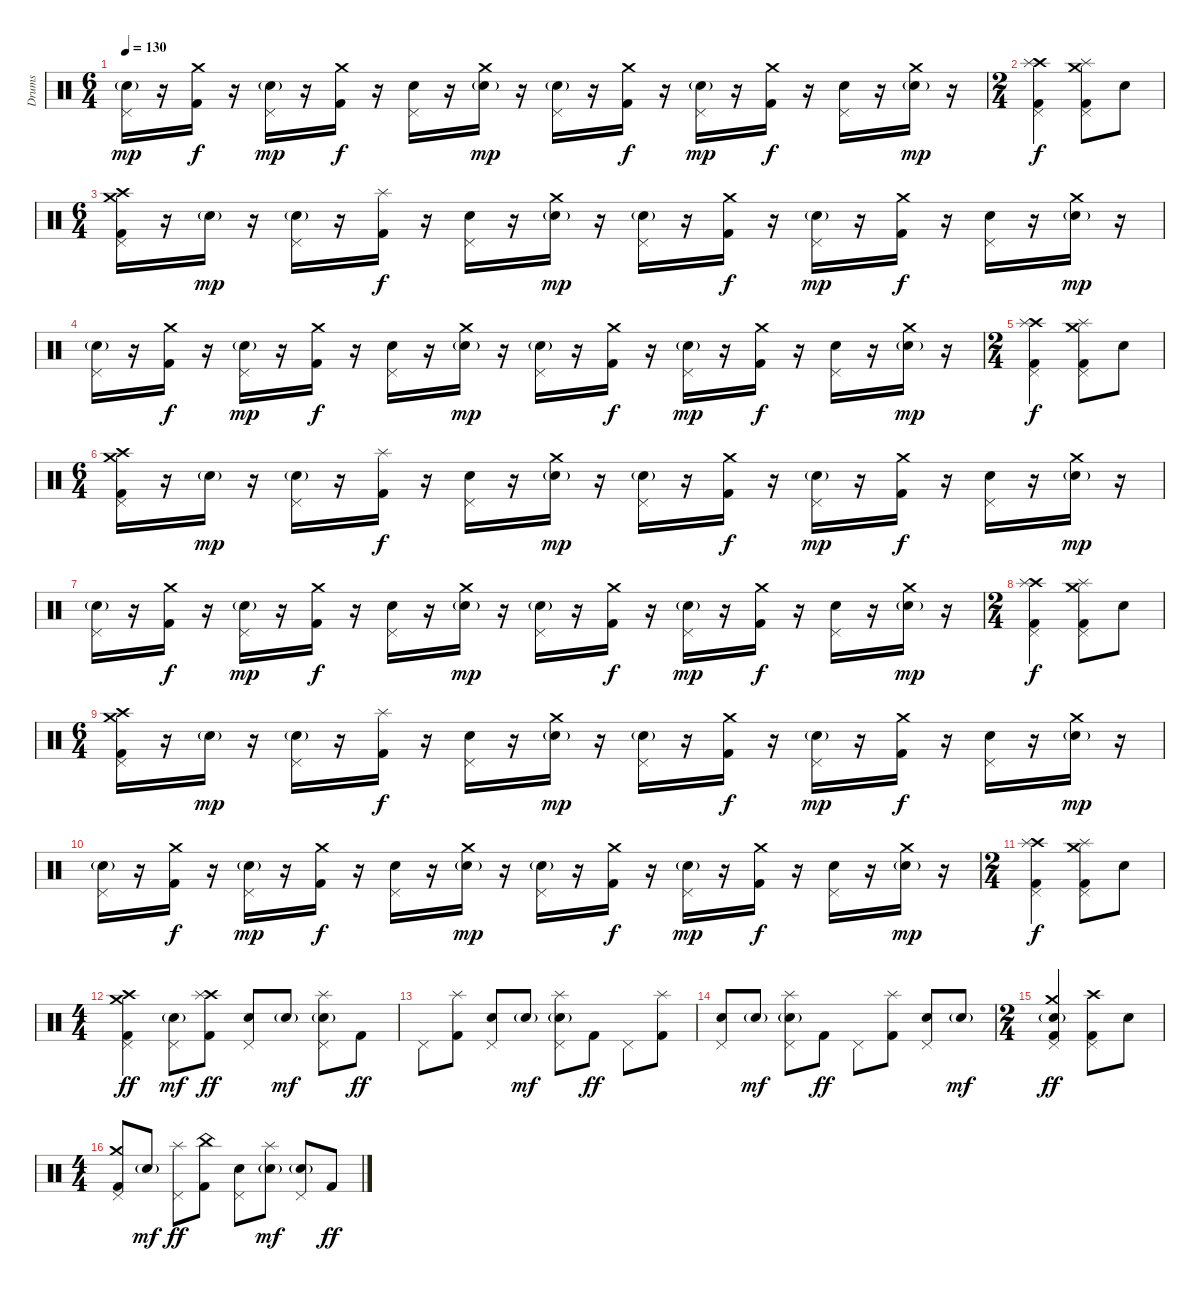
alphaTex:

\track ("Drums" "Drums") {instrument percussion}
\staff {score}
\articulation defaults
\ts (6 4)
\tempo 130
\clef neutral
\ks c
("Pedal Hi-Hat (hit)" "Electric Snare (hit)"{g}).16{dy mp} r.16 ("Crash medium (hit)" "Kick (hit) 2").16{dy f} r.16 ("Pedal Hi-Hat (hit)" "Electric Snare (hit)"{g}).16{dy mp} r.16 ("Crash medium (hit)" "Kick (hit) 2").16{dy f} r.16 ("Pedal Hi-Hat (hit)" "Electric Snare (hit)").16 r.16 ("Crash medium (hit)" "Electric Snare (hit)"{g}).16{dy mp} r.16 ("Pedal Hi-Hat (hit)" "Electric Snare (hit)"{g}).16 r.16 ("Crash medium (hit)" "Kick (hit) 2").16{dy f} r.16 ("Pedal Hi-Hat (hit)" "Electric Snare (hit)"{g}).16{dy mp} r.16 ("Crash medium (hit)" "Kick (hit) 2").16{dy f} r.16 ("Pedal Hi-Hat (hit)" "Electric Snare (hit)").16 r.16 ("Crash medium (hit)" "Electric Snare (hit)"{g}).16{dy mp} r.16 |
\ts (2 4)
("Crash high (hit)" "Splash (hit)" "Pedal Hi-Hat (hit)" "Kick (hit) 2").4{dy f} ("Crash medium (hit)" "Splash (hit)" "Pedal Hi-Hat (hit)" "Kick (hit) 2").8 "Electric Snare (hit)".8 |
\ts (6 4)
("Crash medium (hit)" "Crash high (hit)" "Pedal Hi-Hat (hit)" "Kick (hit) 2").16 r.16 "Electric Snare (hit)"{g}.16{dy mp} r.16 ("Pedal Hi-Hat (hit)" "Electric Snare (hit)"{g}).16 r.16 ("Splash (hit)" "Kick (hit) 2").16{dy f} r.16 ("Pedal Hi-Hat (hit)" "Electric Snare (hit)").16 r.16 ("Crash medium (hit)" "Electric Snare (hit)"{g}).16{dy mp} r.16 ("Pedal Hi-Hat (hit)" "Electric Snare (hit)"{g}).16 r.16 ("Crash medium (hit)" "Kick (hit) 2").16{dy f} r.16 ("Pedal Hi-Hat (hit)" "Electric Snare (hit)"{g}).16{dy mp} r.16 ("Crash medium (hit)" "Kick (hit) 2").16{dy f} r.16 ("Pedal Hi-Hat (hit)" "Electric Snare (hit)").16 r.16 ("Crash medium (hit)" "Electric Snare (hit)"{g}).16{dy mp} r.16 |
("Pedal Hi-Hat (hit)" "Electric Snare (hit)"{g}).16 r.16 ("Crash medium (hit)" "Kick (hit) 2").16{dy f} r.16 ("Pedal Hi-Hat (hit)" "Electric Snare (hit)"{g}).16{dy mp} r.16 ("Crash medium (hit)" "Kick (hit) 2").16{dy f} r.16 ("Pedal Hi-Hat (hit)" "Electric Snare (hit)").16 r.16 ("Crash medium (hit)" "Electric Snare (hit)"{g}).16{dy mp} r.16 ("Pedal Hi-Hat (hit)" "Electric Snare (hit)"{g}).16 r.16 ("Crash medium (hit)" "Kick (hit) 2").16{dy f} r.16 ("Pedal Hi-Hat (hit)" "Electric Snare (hit)"{g}).16{dy mp} r.16 ("Crash medium (hit)" "Kick (hit) 2").16{dy f} r.16 ("Pedal Hi-Hat (hit)" "Electric Snare (hit)").16 r.16 ("Crash medium (hit)" "Electric Snare (hit)"{g}).16{dy mp} r.16 |
\ts (2 4)
("Crash high (hit)" "Splash (hit)" "Pedal Hi-Hat (hit)" "Kick (hit) 2").4{dy f} ("Crash medium (hit)" "Splash (hit)" "Pedal Hi-Hat (hit)" "Kick (hit) 2").8 "Electric Snare (hit)".8 |
\ts (6 4)
("Crash medium (hit)" "Crash high (hit)" "Pedal Hi-Hat (hit)" "Kick (hit) 2").16 r.16 "Electric Snare (hit)"{g}.16{dy mp} r.16 ("Pedal Hi-Hat (hit)" "Electric Snare (hit)"{g}).16 r.16 ("Splash (hit)" "Kick (hit) 2").16{dy f} r.16 ("Pedal Hi-Hat (hit)" "Electric Snare (hit)").16 r.16 ("Crash medium (hit)" "Electric Snare (hit)"{g}).16{dy mp} r.16 ("Pedal Hi-Hat (hit)" "Electric Snare (hit)"{g}).16 r.16 ("Crash medium (hit)" "Kick (hit) 2").16{dy f} r.16 ("Pedal Hi-Hat (hit)" "Electric Snare (hit)"{g}).16{dy mp} r.16 ("Crash medium (hit)" "Kick (hit) 2").16{dy f} r.16 ("Pedal Hi-Hat (hit)" "Electric Snare (hit)").16 r.16 ("Crash medium (hit)" "Electric Snare (hit)"{g}).16{dy mp} r.16 |
("Pedal Hi-Hat (hit)" "Electric Snare (hit)"{g}).16 r.16 ("Crash medium (hit)" "Kick (hit) 2").16{dy f} r.16 ("Pedal Hi-Hat (hit)" "Electric Snare (hit)"{g}).16{dy mp} r.16 ("Crash medium (hit)" "Kick (hit) 2").16{dy f} r.16 ("Pedal Hi-Hat (hit)" "Electric Snare (hit)").16 r.16 ("Crash medium (hit)" "Electric Snare (hit)"{g}).16{dy mp} r.16 ("Pedal Hi-Hat (hit)" "Electric Snare (hit)"{g}).16 r.16 ("Crash medium (hit)" "Kick (hit) 2").16{dy f} r.16 ("Pedal Hi-Hat (hit)" "Electric Snare (hit)"{g}).16{dy mp} r.16 ("Crash medium (hit)" "Kick (hit) 2").16{dy f} r.16 ("Pedal Hi-Hat (hit)" "Electric Snare (hit)").16 r.16 ("Crash medium (hit)" "Electric Snare (hit)"{g}).16{dy mp} r.16 |
\ts (2 4)
("Crash high (hit)" "Splash (hit)" "Pedal Hi-Hat (hit)" "Kick (hit) 2").4{dy f} ("Crash medium (hit)" "Splash (hit)" "Pedal Hi-Hat (hit)" "Kick (hit) 2").8 "Electric Snare (hit)".8 |
\ts (6 4)
("Crash medium (hit)" "Crash high (hit)" "Pedal Hi-Hat (hit)" "Kick (hit) 2").16 r.16 "Electric Snare (hit)"{g}.16{dy mp} r.16 ("Pedal Hi-Hat (hit)" "Electric Snare (hit)"{g}).16 r.16 ("Splash (hit)" "Kick (hit) 2").16{dy f} r.16 ("Pedal Hi-Hat (hit)" "Electric Snare (hit)").16 r.16 ("Crash medium (hit)" "Electric Snare (hit)"{g}).16{dy mp} r.16 ("Pedal Hi-Hat (hit)" "Electric Snare (hit)"{g}).16 r.16 ("Crash medium (hit)" "Kick (hit) 2").16{dy f} r.16 ("Pedal Hi-Hat (hit)" "Electric Snare (hit)"{g}).16{dy mp} r.16 ("Crash medium (hit)" "Kick (hit) 2").16{dy f} r.16 ("Pedal Hi-Hat (hit)" "Electric Snare (hit)").16 r.16 ("Crash medium (hit)" "Electric Snare (hit)"{g}).16{dy mp} r.16 |
("Pedal Hi-Hat (hit)" "Electric Snare (hit)"{g}).16 r.16 ("Crash medium (hit)" "Kick (hit) 2").16{dy f} r.16 ("Pedal Hi-Hat (hit)" "Electric Snare (hit)"{g}).16{dy mp} r.16 ("Crash medium (hit)" "Kick (hit) 2").16{dy f} r.16 ("Pedal Hi-Hat (hit)" "Electric Snare (hit)").16 r.16 ("Crash medium (hit)" "Electric Snare (hit)"{g}).16{dy mp} r.16 ("Pedal Hi-Hat (hit)" "Electric Snare (hit)"{g}).16 r.16 ("Crash medium (hit)" "Kick (hit) 2").16{dy f} r.16 ("Pedal Hi-Hat (hit)" "Electric Snare (hit)"{g}).16{dy mp} r.16 ("Crash medium (hit)" "Kick (hit) 2").16{dy f} r.16 ("Pedal Hi-Hat (hit)" "Electric Snare (hit)").16 r.16 ("Crash medium (hit)" "Electric Snare (hit)"{g}).16{dy mp} r.16 |
\ts (2 4)
("Crash high (hit)" "Splash (hit)" "Pedal Hi-Hat (hit)" "Kick (hit) 2").4{dy f} ("Crash medium (hit)" "Splash (hit)" "Pedal Hi-Hat (hit)" "Kick (hit) 2").8 "Electric Snare (hit)".8 |
\ts (4 4)
("Crash medium (hit)" "Crash high (hit)" "Pedal Hi-Hat (hit)" "Kick (hit) 2").4{dy ff} ("Pedal Hi-Hat (hit)" "Electric Snare (hit)"{g}).8{dy mf} ("Crash high (hit)" "Splash (hit)" "Kick (hit) 2").8{dy ff} ("Pedal Hi-Hat (hit)" "Electric Snare (hit)").8 "Electric Snare (hit)"{g}.8{dy mf} ("Splash (hit)" "Pedal Hi-Hat (hit)" "Electric Snare (hit)"{g}).8 "Kick (hit) 2".8{dy ff} |
"Pedal Hi-Hat (hit)".8 ("Splash (hit)" "Kick (hit) 2").8 ("Pedal Hi-Hat (hit)" "Electric Snare (hit)").8 "Electric Snare (hit)"{g}.8{dy mf} ("Splash (hit)" "Pedal Hi-Hat (hit)" "Electric Snare (hit)"{g}).8 "Kick (hit) 2".8{dy ff} "Pedal Hi-Hat (hit)".8 ("Splash (hit)" "Kick (hit) 2").8 |
("Pedal Hi-Hat (hit)" "Electric Snare (hit)").8 "Electric Snare (hit)"{g}.8{dy mf} ("Splash (hit)" "Pedal Hi-Hat (hit)" "Electric Snare (hit)"{g}).8 "Kick (hit) 2".8{dy ff} "Pedal Hi-Hat (hit)".8 ("Splash (hit)" "Kick (hit) 2").8 ("Pedal Hi-Hat (hit)" "Electric Snare (hit)").8 "Electric Snare (hit)"{g}.8{dy mf} |
\ts (2 4)
("Crash medium (hit)" "Pedal Hi-Hat (hit)" "Electric Snare (hit)"{g} "Kick (hit) 2").4{dy ff} ("Crash high (hit)" "Pedal Hi-Hat (hit)" "Kick (hit) 2").8 "Electric Snare (hit)".8 |
\ts (4 4)
("Crash medium (hit)" "Pedal Hi-Hat (hit)" "Kick (hit) 2").8 "Electric Snare (hit)"{g}.8{dy mf} ("Splash (hit)" "Pedal Hi-Hat (hit)").8{dy ff} ("China (hit)" "Kick (hit) 2").8 ("Pedal Hi-Hat (hit)" "Electric Snare (hit)").8 ("Splash (hit)" "Electric Snare (hit)"{g}).8{dy mf} ("Pedal Hi-Hat (hit)" "Electric Snare (hit)"{g}).8 "Kick (hit) 2".8{dy ff}
